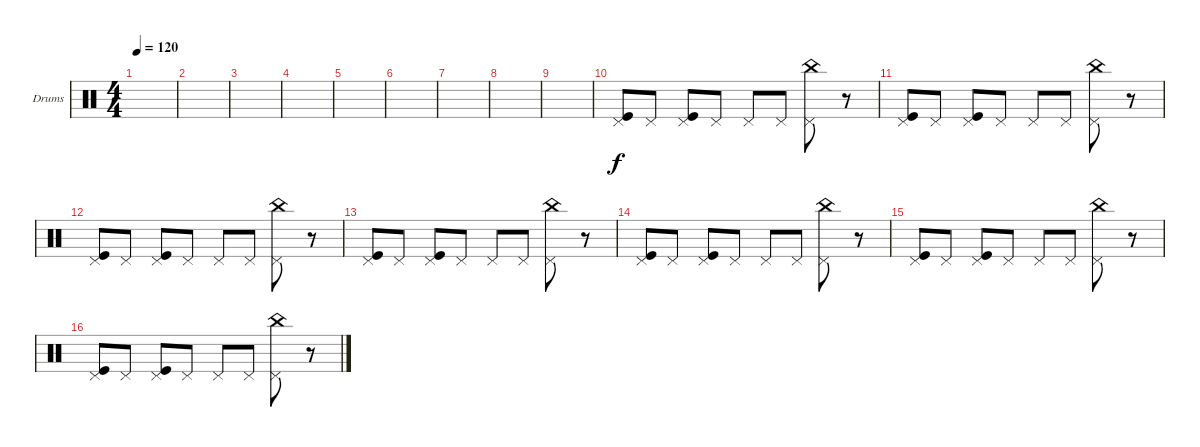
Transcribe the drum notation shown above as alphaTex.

\defaultSystemsLayout 4
\bracketExtendMode groupsimilarinstruments
\firstSystemTrackNameOrientation horizontal
\otherSystemsTrackNameOrientation horizontal
\track ("Drumkit" "Drums") {instrument percussion}
\staff {score}
\articulation defaults
\ts (4 4)
\tempo 120
\clef neutral
\scale
0.474178
\ks c
|
\scale
0.262911 |
\scale
0.262911 |
\scale
0.333333 |
\scale
0.333333 |
\scale
0.333333 |
\scale
0.333333 |
\scale
0.333333 |
\scale
0.333333 |
\scale
0.333333 ("Pedal Hi-Hat (hit)" "Kick (hit)").8 "Pedal Hi-Hat (hit)".8 ("Pedal Hi-Hat (hit)" "Kick (hit)").8 "Pedal Hi-Hat (hit)".8 "Pedal Hi-Hat (hit)".8 "Pedal Hi-Hat (hit)".8 ("Pedal Hi-Hat (hit)" "China (hit)").8 r.8 |
\scale
0.333333 ("Pedal Hi-Hat (hit)" "Kick (hit)").8 "Pedal Hi-Hat (hit)".8 ("Pedal Hi-Hat (hit)" "Kick (hit)").8 "Pedal Hi-Hat (hit)".8 "Pedal Hi-Hat (hit)".8 "Pedal Hi-Hat (hit)".8 ("Pedal Hi-Hat (hit)" "China (hit)").8 r.8 |
\scale
0.333333 ("Pedal Hi-Hat (hit)" "Kick (hit)").8 "Pedal Hi-Hat (hit)".8 ("Pedal Hi-Hat (hit)" "Kick (hit)").8 "Pedal Hi-Hat (hit)".8 "Pedal Hi-Hat (hit)".8 "Pedal Hi-Hat (hit)".8 ("Pedal Hi-Hat (hit)" "China (hit)").8 r.8 |
\scale
0.333333 ("Pedal Hi-Hat (hit)" "Kick (hit)").8 "Pedal Hi-Hat (hit)".8 ("Pedal Hi-Hat (hit)" "Kick (hit)").8 "Pedal Hi-Hat (hit)".8 "Pedal Hi-Hat (hit)".8 "Pedal Hi-Hat (hit)".8 ("Pedal Hi-Hat (hit)" "China (hit)").8 r.8 |
\scale
0.333333 ("Pedal Hi-Hat (hit)" "Kick (hit)").8 "Pedal Hi-Hat (hit)".8 ("Pedal Hi-Hat (hit)" "Kick (hit)").8 "Pedal Hi-Hat (hit)".8 "Pedal Hi-Hat (hit)".8 "Pedal Hi-Hat (hit)".8 ("Pedal Hi-Hat (hit)" "China (hit)").8 r.8 |
\scale
0.333333 ("Pedal Hi-Hat (hit)" "Kick (hit)").8 "Pedal Hi-Hat (hit)".8 ("Pedal Hi-Hat (hit)" "Kick (hit)").8 "Pedal Hi-Hat (hit)".8 "Pedal Hi-Hat (hit)".8 "Pedal Hi-Hat (hit)".8 ("Pedal Hi-Hat (hit)" "China (hit)").8 r.8 |
\scale
0.333333 ("Pedal Hi-Hat (hit)" "Kick (hit)").8 "Pedal Hi-Hat (hit)".8 ("Pedal Hi-Hat (hit)" "Kick (hit)").8 "Pedal Hi-Hat (hit)".8 "Pedal Hi-Hat (hit)".8 "Pedal Hi-Hat (hit)".8 ("Pedal Hi-Hat (hit)" "China (hit)").8 r.8
